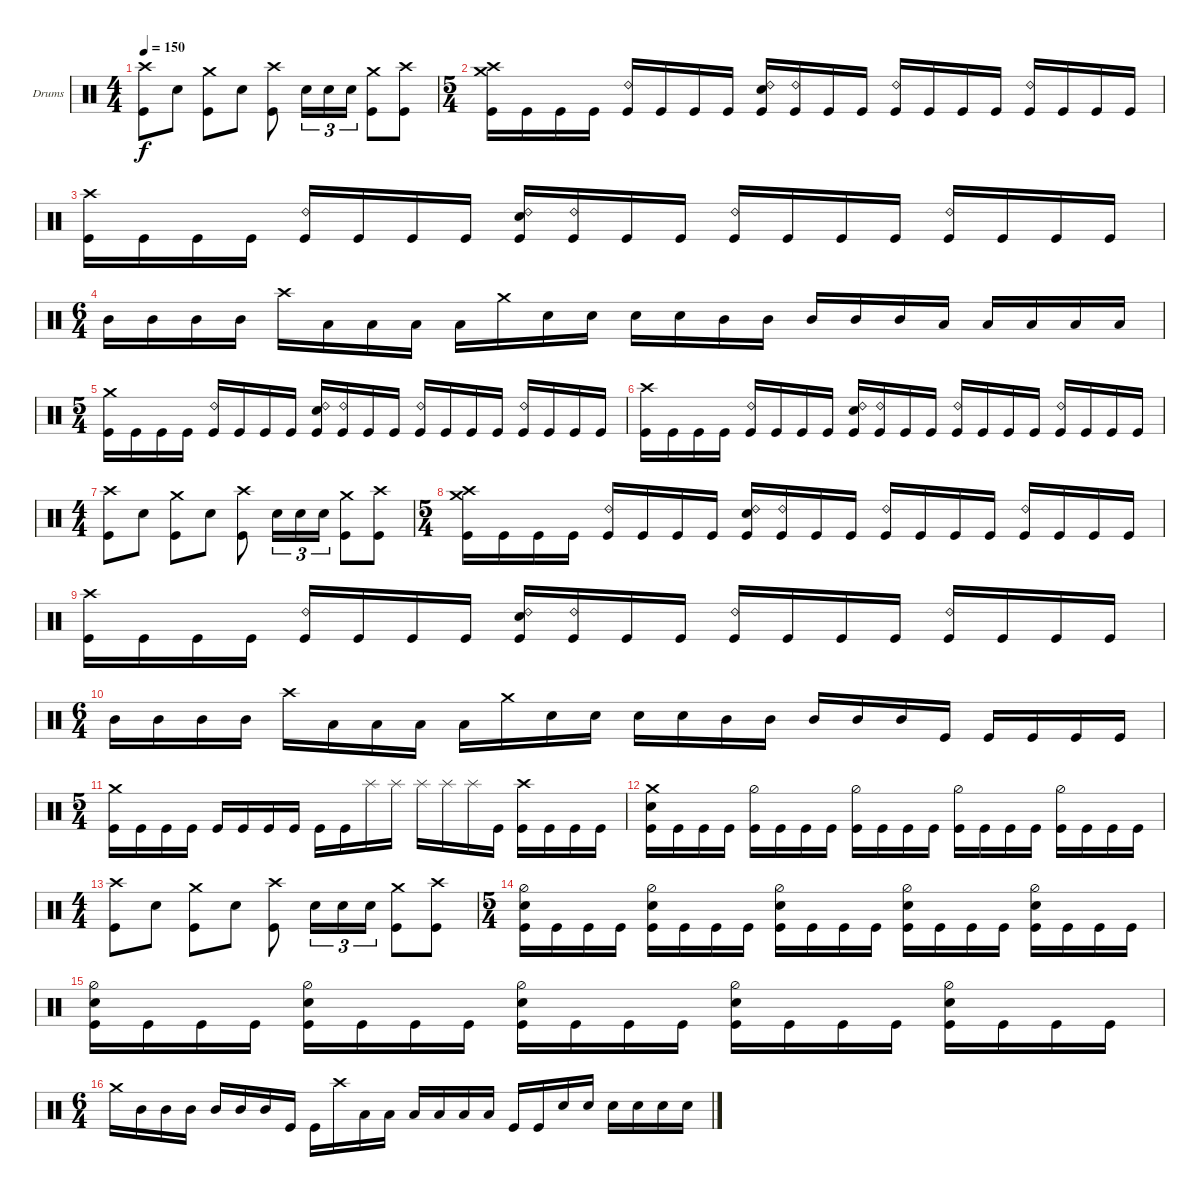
\bracketExtendMode groupsimilarinstruments
\firstSystemTrackNameOrientation horizontal
\otherSystemsTrackNameOrientation horizontal
\track ("Drumkit" "Drums") {instrument percussion}
\staff {score}
\articulation defaults
\ts (4 4)
\tempo 150
\clef neutral
\ks c
("Crash high (hit)" "Kick (hit)").8{dy f} "Snare (hit) 2".8 ("Crash medium (hit)" "Kick (hit)").8 "Snare (hit) 2".8 ("Crash high (hit)" "Kick (hit)").8 "Snare (hit) 2".16{tu (3 2)} "Snare (hit) 2".16{tu (3 2)} "Snare (hit) 2".16{tu (3 2)} ("Crash medium (hit)" "Kick (hit)").8 ("Crash high (hit)" "Kick (hit)").8 |
\ts (5 4)
("Crash medium (hit)" "Kick (hit)" "Crash high (hit)").16 "Kick (hit)".16 "Kick (hit)".16 "Kick (hit)".16 ("Kick (hit)" "Ride (bell) 2").16 "Kick (hit)".16 "Kick (hit)".16 "Kick (hit)".16 ("Snare (hit) 2" "Kick (hit)" "Ride (bell) 2").16 ("Kick (hit)" "Ride (bell) 2").16 "Kick (hit)".16 "Kick (hit)".16 ("Ride (bell) 2" "Kick (hit)").16 "Kick (hit)".16 "Kick (hit)".16 "Kick (hit)".16 ("Ride (bell) 2" "Kick (hit)").16 "Kick (hit)".16 "Kick (hit)".16 "Kick (hit)".16 |
("Kick (hit)" "Crash high (hit)").16 "Kick (hit)".16 "Kick (hit)".16 "Kick (hit)".16 ("Kick (hit)" "Ride (bell) 2").16 "Kick (hit)".16 "Kick (hit)".16 "Kick (hit)".16 ("Snare (hit) 2" "Kick (hit)" "Ride (bell) 2").16 ("Kick (hit)" "Ride (bell) 2").16 "Kick (hit)".16 "Kick (hit)".16 ("Ride (bell) 2" "Kick (hit)").16 "Kick (hit)".16 "Kick (hit)".16 "Kick (hit)".16 ("Ride (bell) 2" "Kick (hit)").16 "Kick (hit)".16 "Kick (hit)".16 "Kick (hit)".16 |
\ts (6 4)
"Mid Tom (hit)".16 "Mid Tom (hit)".16 "Mid Tom (hit)".16 "Mid Tom (hit)".16 "Crash high (hit)".16 "Low Tom (hit)".16 "Low Tom (hit)".16 "Low Tom (hit)".16 "Low Tom (hit)".16 "Crash medium (hit)".16 "Snare (hit) 2".16 "Snare (hit) 2".16 "Snare (hit) 2".16 "Snare (hit) 2".16 "Mid Tom (hit)".16 "Mid Tom (hit)".16 "Mid Tom (hit)".16 "Mid Tom (hit)".16 "Mid Tom (hit)".16 "Low Tom (hit)".16 "Low Tom (hit)".16 "Low Tom (hit)".16 "Low Tom (hit)".16 "Low Tom (hit)".16 |
\ts (5 4)
("Crash medium (hit)" "Kick (hit)").16 "Kick (hit)".16 "Kick (hit)".16 "Kick (hit)".16 ("Kick (hit)" "Ride (bell) 2").16 "Kick (hit)".16 "Kick (hit)".16 "Kick (hit)".16 ("Snare (hit) 2" "Kick (hit)" "Ride (bell) 2").16 ("Kick (hit)" "Ride (bell) 2").16 "Kick (hit)".16 "Kick (hit)".16 ("Ride (bell) 2" "Kick (hit)").16 "Kick (hit)".16 "Kick (hit)".16 "Kick (hit)".16 ("Ride (bell) 2" "Kick (hit)").16 "Kick (hit)".16 "Kick (hit)".16 "Kick (hit)".16 |
("Kick (hit)" "Crash high (hit)").16 "Kick (hit)".16 "Kick (hit)".16 "Kick (hit)".16 ("Kick (hit)" "Ride (bell) 2").16 "Kick (hit)".16 "Kick (hit)".16 "Kick (hit)".16 ("Snare (hit) 2" "Kick (hit)" "Ride (bell) 2").16 ("Kick (hit)" "Ride (bell) 2").16 "Kick (hit)".16 "Kick (hit)".16 ("Ride (bell) 2" "Kick (hit)").16 "Kick (hit)".16 "Kick (hit)".16 "Kick (hit)".16 ("Ride (bell) 2" "Kick (hit)").16 "Kick (hit)".16 "Kick (hit)".16 "Kick (hit)".16 |
\ts (4 4)
("Crash high (hit)" "Kick (hit)").8 "Snare (hit) 2".8 ("Crash medium (hit)" "Kick (hit)").8 "Snare (hit) 2".8 ("Crash high (hit)" "Kick (hit)").8 "Snare (hit) 2".16{tu (3 2)} "Snare (hit) 2".16{tu (3 2)} "Snare (hit) 2".16{tu (3 2)} ("Crash medium (hit)" "Kick (hit)").8 ("Crash high (hit)" "Kick (hit)").8 |
\ts (5 4)
("Crash medium (hit)" "Kick (hit)" "Crash high (hit)").16 "Kick (hit)".16 "Kick (hit)".16 "Kick (hit)".16 ("Kick (hit)" "Ride (bell) 2").16 "Kick (hit)".16 "Kick (hit)".16 "Kick (hit)".16 ("Snare (hit) 2" "Kick (hit)" "Ride (bell) 2").16 ("Kick (hit)" "Ride (bell) 2").16 "Kick (hit)".16 "Kick (hit)".16 ("Ride (bell) 2" "Kick (hit)").16 "Kick (hit)".16 "Kick (hit)".16 "Kick (hit)".16 ("Ride (bell) 2" "Kick (hit)").16 "Kick (hit)".16 "Kick (hit)".16 "Kick (hit)".16 |
("Kick (hit)" "Crash high (hit)").16 "Kick (hit)".16 "Kick (hit)".16 "Kick (hit)".16 ("Kick (hit)" "Ride (bell) 2").16 "Kick (hit)".16 "Kick (hit)".16 "Kick (hit)".16 ("Snare (hit) 2" "Kick (hit)" "Ride (bell) 2").16 ("Kick (hit)" "Ride (bell) 2").16 "Kick (hit)".16 "Kick (hit)".16 ("Ride (bell) 2" "Kick (hit)").16 "Kick (hit)".16 "Kick (hit)".16 "Kick (hit)".16 ("Ride (bell) 2" "Kick (hit)").16 "Kick (hit)".16 "Kick (hit)".16 "Kick (hit)".16 |
\ts (6 4)
"Mid Tom (hit)".16 "Mid Tom (hit)".16 "Mid Tom (hit)".16 "Mid Tom (hit)".16 "Crash high (hit)".16 "Low Tom (hit)".16 "Low Tom (hit)".16 "Low Tom (hit)".16 "Low Tom (hit)".16 "Crash medium (hit)".16 "Snare (hit) 2".16 "Snare (hit) 2".16 "Snare (hit) 2".16 "Snare (hit) 2".16 "Mid Tom (hit)".16 "Mid Tom (hit)".16 "Mid Tom (hit)".16 "Mid Tom (hit)".16 "Mid Tom (hit)".16 "Kick (hit)".16 "Kick (hit)".16 "Kick (hit)".16 "Kick (hit)".16 "Kick (hit)".16 |
\ts (5 4)
("Crash medium (hit)" "Kick (hit)").16 "Kick (hit)".16 "Kick (hit)".16 "Kick (hit)".16 "Kick (hit)".16 "Kick (hit)".16 "Kick (hit)".16 "Kick (hit)".16 "Kick (hit)".16 "Kick (hit)".16 "Splash (hit)".16 "Splash (hit)".16 "Splash (hit)".16 "Splash (hit)".16 "Splash (hit)".16 "Kick (hit)".16 ("Kick (hit)" "Crash high (hit)").16 "Kick (hit)".16 "Kick (hit)".16 "Kick (hit)".16 |
("Kick (hit)" "Snare (hit) 2" "Crash medium (hit)").16 "Kick (hit)".16 "Kick (hit)".16 "Kick (hit)".16 ("Kick (hit)" "Hi-Hat (half)").16 "Kick (hit)".16 "Kick (hit)".16 "Kick (hit)".16 ("Kick (hit)" "Hi-Hat (half)").16 "Kick (hit)".16 "Kick (hit)".16 "Kick (hit)".16 ("Kick (hit)" "Hi-Hat (half)").16 "Kick (hit)".16 "Kick (hit)".16 "Kick (hit)".16 ("Kick (hit)" "Hi-Hat (half)").16 "Kick (hit)".16 "Kick (hit)".16 "Kick (hit)".16 |
\ts (4 4)
("Crash high (hit)" "Kick (hit)").8 "Snare (hit) 2".8 ("Crash medium (hit)" "Kick (hit)").8 "Snare (hit) 2".8 ("Crash high (hit)" "Kick (hit)").8 "Snare (hit) 2".16{tu (3 2)} "Snare (hit) 2".16{tu (3 2)} "Snare (hit) 2".16{tu (3 2)} ("Crash medium (hit)" "Kick (hit)").8 ("Crash high (hit)" "Kick (hit)").8 |
\ts (5 4)
("Kick (hit)" "Snare (hit) 2" "Hi-Hat (half)").16 "Kick (hit)".16 "Kick (hit)".16 "Kick (hit)".16 ("Kick (hit)" "Snare (hit) 2" "Hi-Hat (half)").16 "Kick (hit)".16 "Kick (hit)".16 "Kick (hit)".16 ("Kick (hit)" "Snare (hit) 2" "Hi-Hat (half)").16 "Kick (hit)".16 "Kick (hit)".16 "Kick (hit)".16 ("Kick (hit)" "Snare (hit) 2" "Hi-Hat (half)").16 "Kick (hit)".16 "Kick (hit)".16 "Kick (hit)".16 ("Kick (hit)" "Snare (hit) 2" "Hi-Hat (half)").16 "Kick (hit)".16 "Kick (hit)".16 "Kick (hit)".16 |
("Kick (hit)" "Snare (hit) 2" "Hi-Hat (half)").16 "Kick (hit)".16 "Kick (hit)".16 "Kick (hit)".16 ("Kick (hit)" "Snare (hit) 2" "Hi-Hat (half)").16 "Kick (hit)".16 "Kick (hit)".16 "Kick (hit)".16 ("Kick (hit)" "Snare (hit) 2" "Hi-Hat (half)").16 "Kick (hit)".16 "Kick (hit)".16 "Kick (hit)".16 ("Kick (hit)" "Snare (hit) 2" "Hi-Hat (half)").16 "Kick (hit)".16 "Kick (hit)".16 "Kick (hit)".16 ("Kick (hit)" "Snare (hit) 2" "Hi-Hat (half)").16 "Kick (hit)".16 "Kick (hit)".16 "Kick (hit)".16 |
\ts (6 4)
"Crash medium (hit)".16 "Mid Tom (hit)".16 "Mid Tom (hit)".16 "Mid Tom (hit)".16 "Mid Tom (hit)".16 "Mid Tom (hit)".16 "Mid Tom (hit)".16 "Kick (hit)".16 "Kick (hit)".16 "Crash high (hit)".16 "Low Tom (hit)".16 "Low Tom (hit)".16 "Low Tom (hit)".16 "Low Tom (hit)".16 "Low Tom (hit)".16 "Low Tom (hit)".16 "Kick (hit)".16 "Kick (hit)".16 "Snare (hit) 2".16 "Snare (hit) 2".16 "Snare (hit) 2".16 "Snare (hit) 2".16 "Snare (hit) 2".16 "Snare (hit) 2".16
